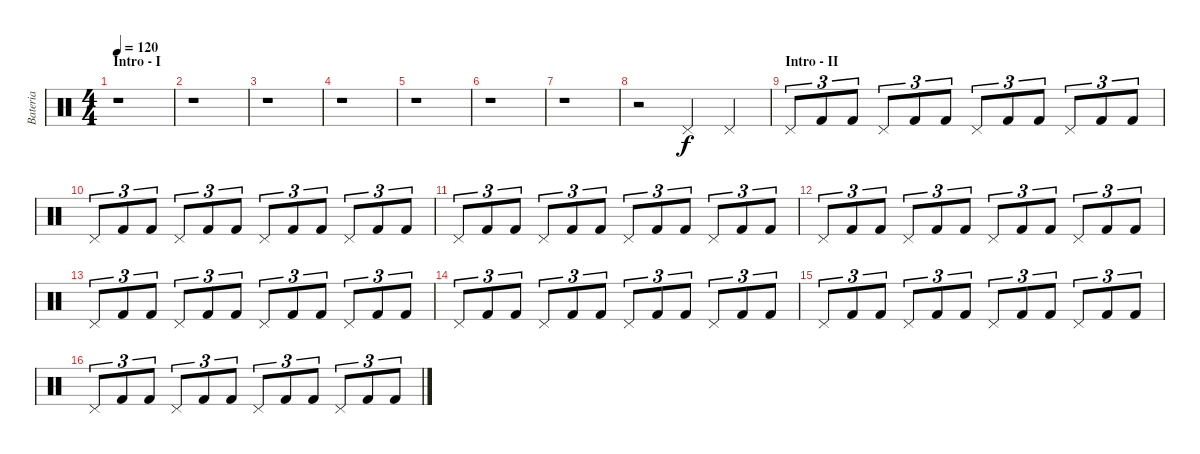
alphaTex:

\track ("Bateria" "Bateria") {instrument percussion}
\staff {score}
\articulation defaults
\ts (4 4)
\section ("" "Intro - I")
\tempo 120
\clef neutral
\ks c
r.1{dy f} |
r.1 |
r.1 |
r.1 |
r.1 |
r.1 |
r.1 |
r.2 "Pedal Hi-Hat (hit)".4 "Pedal Hi-Hat (hit)".4 |
\section ("" "Intro - II")
"Pedal Hi-Hat (hit)".8{tu (3 2)} "Kick (hit) 2".8{tu (3 2)} "Kick (hit) 2".8{tu (3 2)} "Pedal Hi-Hat (hit)".8{tu (3 2)} "Kick (hit) 2".8{tu (3 2)} "Kick (hit) 2".8{tu (3 2)} "Pedal Hi-Hat (hit)".8{tu (3 2)} "Kick (hit) 2".8{tu (3 2)} "Kick (hit) 2".8{tu (3 2)} "Pedal Hi-Hat (hit)".8{tu (3 2)} "Kick (hit) 2".8{tu (3 2)} "Kick (hit) 2".8{tu (3 2)} |
"Pedal Hi-Hat (hit)".8{tu (3 2)} "Kick (hit) 2".8{tu (3 2)} "Kick (hit) 2".8{tu (3 2)} "Pedal Hi-Hat (hit)".8{tu (3 2)} "Kick (hit) 2".8{tu (3 2)} "Kick (hit) 2".8{tu (3 2)} "Pedal Hi-Hat (hit)".8{tu (3 2)} "Kick (hit) 2".8{tu (3 2)} "Kick (hit) 2".8{tu (3 2)} "Pedal Hi-Hat (hit)".8{tu (3 2)} "Kick (hit) 2".8{tu (3 2)} "Kick (hit) 2".8{tu (3 2)} |
"Pedal Hi-Hat (hit)".8{tu (3 2)} "Kick (hit) 2".8{tu (3 2)} "Kick (hit) 2".8{tu (3 2)} "Pedal Hi-Hat (hit)".8{tu (3 2)} "Kick (hit) 2".8{tu (3 2)} "Kick (hit) 2".8{tu (3 2)} "Pedal Hi-Hat (hit)".8{tu (3 2)} "Kick (hit) 2".8{tu (3 2)} "Kick (hit) 2".8{tu (3 2)} "Pedal Hi-Hat (hit)".8{tu (3 2)} "Kick (hit) 2".8{tu (3 2)} "Kick (hit) 2".8{tu (3 2)} |
"Pedal Hi-Hat (hit)".8{tu (3 2)} "Kick (hit) 2".8{tu (3 2)} "Kick (hit) 2".8{tu (3 2)} "Pedal Hi-Hat (hit)".8{tu (3 2)} "Kick (hit) 2".8{tu (3 2)} "Kick (hit) 2".8{tu (3 2)} "Pedal Hi-Hat (hit)".8{tu (3 2)} "Kick (hit) 2".8{tu (3 2)} "Kick (hit) 2".8{tu (3 2)} "Pedal Hi-Hat (hit)".8{tu (3 2)} "Kick (hit) 2".8{tu (3 2)} "Kick (hit) 2".8{tu (3 2)} |
"Pedal Hi-Hat (hit)".8{tu (3 2)} "Kick (hit) 2".8{tu (3 2)} "Kick (hit) 2".8{tu (3 2)} "Pedal Hi-Hat (hit)".8{tu (3 2)} "Kick (hit) 2".8{tu (3 2)} "Kick (hit) 2".8{tu (3 2)} "Pedal Hi-Hat (hit)".8{tu (3 2)} "Kick (hit) 2".8{tu (3 2)} "Kick (hit) 2".8{tu (3 2)} "Pedal Hi-Hat (hit)".8{tu (3 2)} "Kick (hit) 2".8{tu (3 2)} "Kick (hit) 2".8{tu (3 2)} |
"Pedal Hi-Hat (hit)".8{tu (3 2)} "Kick (hit) 2".8{tu (3 2)} "Kick (hit) 2".8{tu (3 2)} "Pedal Hi-Hat (hit)".8{tu (3 2)} "Kick (hit) 2".8{tu (3 2)} "Kick (hit) 2".8{tu (3 2)} "Pedal Hi-Hat (hit)".8{tu (3 2)} "Kick (hit) 2".8{tu (3 2)} "Kick (hit) 2".8{tu (3 2)} "Pedal Hi-Hat (hit)".8{tu (3 2)} "Kick (hit) 2".8{tu (3 2)} "Kick (hit) 2".8{tu (3 2)} |
"Pedal Hi-Hat (hit)".8{tu (3 2)} "Kick (hit) 2".8{tu (3 2)} "Kick (hit) 2".8{tu (3 2)} "Pedal Hi-Hat (hit)".8{tu (3 2)} "Kick (hit) 2".8{tu (3 2)} "Kick (hit) 2".8{tu (3 2)} "Pedal Hi-Hat (hit)".8{tu (3 2)} "Kick (hit) 2".8{tu (3 2)} "Kick (hit) 2".8{tu (3 2)} "Pedal Hi-Hat (hit)".8{tu (3 2)} "Kick (hit) 2".8{tu (3 2)} "Kick (hit) 2".8{tu (3 2)} |
"Pedal Hi-Hat (hit)".8{tu (3 2)} "Kick (hit) 2".8{tu (3 2)} "Kick (hit) 2".8{tu (3 2)} "Pedal Hi-Hat (hit)".8{tu (3 2)} "Kick (hit) 2".8{tu (3 2)} "Kick (hit) 2".8{tu (3 2)} "Pedal Hi-Hat (hit)".8{tu (3 2)} "Kick (hit) 2".8{tu (3 2)} "Kick (hit) 2".8{tu (3 2)} "Pedal Hi-Hat (hit)".8{tu (3 2)} "Kick (hit) 2".8{tu (3 2)} "Kick (hit) 2".8{tu (3 2)}
